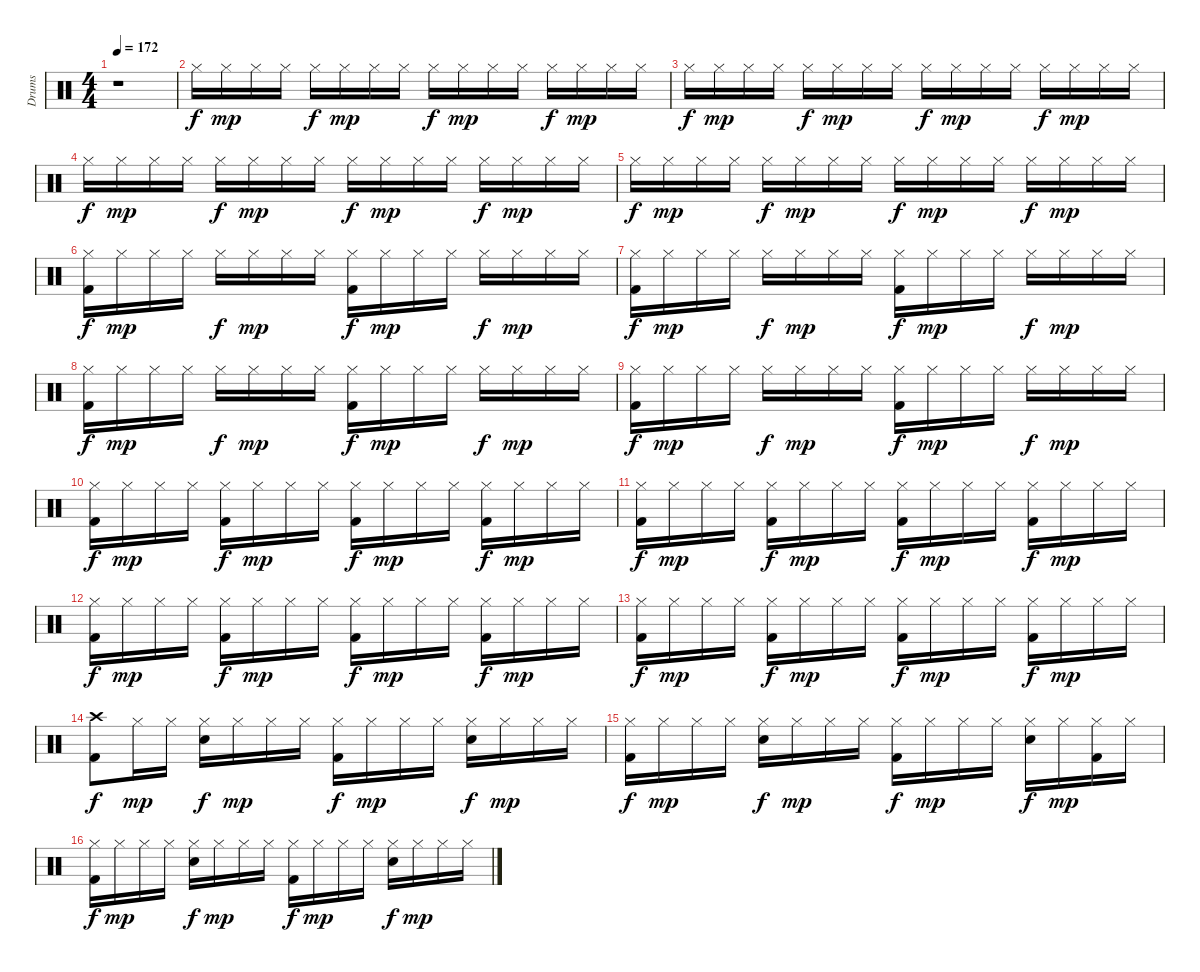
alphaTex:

\track ("Drums" "Drums") {instrument percussion}
\staff {score}
\articulation defaults
\ts (4 4)
\tempo 172
\clef neutral
\ks c
r.1{dy f} |
\section ("" "")
"Hi-Hat (closed)".16 "Hi-Hat (closed)".16{dy mp} "Hi-Hat (closed)".16 "Hi-Hat (closed)".16 "Hi-Hat (closed)".16{dy f} "Hi-Hat (closed)".16{dy mp} "Hi-Hat (closed)".16 "Hi-Hat (closed)".16 "Hi-Hat (closed)".16{dy f} "Hi-Hat (closed)".16{dy mp} "Hi-Hat (closed)".16 "Hi-Hat (closed)".16 "Hi-Hat (closed)".16{dy f} "Hi-Hat (closed)".16{dy mp} "Hi-Hat (closed)".16 "Hi-Hat (closed)".16 |
"Hi-Hat (closed)".16{dy f} "Hi-Hat (closed)".16{dy mp} "Hi-Hat (closed)".16 "Hi-Hat (closed)".16 "Hi-Hat (closed)".16{dy f} "Hi-Hat (closed)".16{dy mp} "Hi-Hat (closed)".16 "Hi-Hat (closed)".16 "Hi-Hat (closed)".16{dy f} "Hi-Hat (closed)".16{dy mp} "Hi-Hat (closed)".16 "Hi-Hat (closed)".16 "Hi-Hat (closed)".16{dy f} "Hi-Hat (closed)".16{dy mp} "Hi-Hat (closed)".16 "Hi-Hat (closed)".16 |
"Hi-Hat (closed)".16{dy f} "Hi-Hat (closed)".16{dy mp} "Hi-Hat (closed)".16 "Hi-Hat (closed)".16 "Hi-Hat (closed)".16{dy f} "Hi-Hat (closed)".16{dy mp} "Hi-Hat (closed)".16 "Hi-Hat (closed)".16 "Hi-Hat (closed)".16{dy f} "Hi-Hat (closed)".16{dy mp} "Hi-Hat (closed)".16 "Hi-Hat (closed)".16 "Hi-Hat (closed)".16{dy f} "Hi-Hat (closed)".16{dy mp} "Hi-Hat (closed)".16 "Hi-Hat (closed)".16 |
"Hi-Hat (closed)".16{dy f} "Hi-Hat (closed)".16{dy mp} "Hi-Hat (closed)".16 "Hi-Hat (closed)".16 "Hi-Hat (closed)".16{dy f} "Hi-Hat (closed)".16{dy mp} "Hi-Hat (closed)".16 "Hi-Hat (closed)".16 "Hi-Hat (closed)".16{dy f} "Hi-Hat (closed)".16{dy mp} "Hi-Hat (closed)".16 "Hi-Hat (closed)".16 "Hi-Hat (closed)".16{dy f} "Hi-Hat (closed)".16{dy mp} "Hi-Hat (closed)".16 "Hi-Hat (closed)".16 |
("Kick (hit) 2" "Hi-Hat (closed)").16{dy f} "Hi-Hat (closed)".16{dy mp} "Hi-Hat (closed)".16 "Hi-Hat (closed)".16 "Hi-Hat (closed)".16{dy f} "Hi-Hat (closed)".16{dy mp} "Hi-Hat (closed)".16 "Hi-Hat (closed)".16 ("Kick (hit) 2" "Hi-Hat (closed)").16{dy f} "Hi-Hat (closed)".16{dy mp} "Hi-Hat (closed)".16 "Hi-Hat (closed)".16 "Hi-Hat (closed)".16{dy f} "Hi-Hat (closed)".16{dy mp} "Hi-Hat (closed)".16 "Hi-Hat (closed)".16 |
("Kick (hit) 2" "Hi-Hat (closed)").16{dy f} "Hi-Hat (closed)".16{dy mp} "Hi-Hat (closed)".16 "Hi-Hat (closed)".16 "Hi-Hat (closed)".16{dy f} "Hi-Hat (closed)".16{dy mp} "Hi-Hat (closed)".16 "Hi-Hat (closed)".16 ("Kick (hit) 2" "Hi-Hat (closed)").16{dy f} "Hi-Hat (closed)".16{dy mp} "Hi-Hat (closed)".16 "Hi-Hat (closed)".16 "Hi-Hat (closed)".16{dy f} "Hi-Hat (closed)".16{dy mp} "Hi-Hat (closed)".16 "Hi-Hat (closed)".16 |
("Kick (hit) 2" "Hi-Hat (closed)").16{dy f} "Hi-Hat (closed)".16{dy mp} "Hi-Hat (closed)".16 "Hi-Hat (closed)".16 "Hi-Hat (closed)".16{dy f} "Hi-Hat (closed)".16{dy mp} "Hi-Hat (closed)".16 "Hi-Hat (closed)".16 ("Kick (hit) 2" "Hi-Hat (closed)").16{dy f} "Hi-Hat (closed)".16{dy mp} "Hi-Hat (closed)".16 "Hi-Hat (closed)".16 "Hi-Hat (closed)".16{dy f} "Hi-Hat (closed)".16{dy mp} "Hi-Hat (closed)".16 "Hi-Hat (closed)".16 |
("Kick (hit) 2" "Hi-Hat (closed)").16{dy f} "Hi-Hat (closed)".16{dy mp} "Hi-Hat (closed)".16 "Hi-Hat (closed)".16 "Hi-Hat (closed)".16{dy f} "Hi-Hat (closed)".16{dy mp} "Hi-Hat (closed)".16 "Hi-Hat (closed)".16 ("Kick (hit) 2" "Hi-Hat (closed)").16{dy f} "Hi-Hat (closed)".16{dy mp} "Hi-Hat (closed)".16 "Hi-Hat (closed)".16 "Hi-Hat (closed)".16{dy f} "Hi-Hat (closed)".16{dy mp} "Hi-Hat (closed)".16 "Hi-Hat (closed)".16 |
("Kick (hit) 2" "Hi-Hat (closed)").16{dy f} "Hi-Hat (closed)".16{dy mp} "Hi-Hat (closed)".16 "Hi-Hat (closed)".16 ("Kick (hit) 2" "Hi-Hat (closed)").16{dy f} "Hi-Hat (closed)".16{dy mp} "Hi-Hat (closed)".16 "Hi-Hat (closed)".16 ("Kick (hit) 2" "Hi-Hat (closed)").16{dy f} "Hi-Hat (closed)".16{dy mp} "Hi-Hat (closed)".16 "Hi-Hat (closed)".16 ("Kick (hit) 2" "Hi-Hat (closed)").16{dy f} "Hi-Hat (closed)".16{dy mp} "Hi-Hat (closed)".16 "Hi-Hat (closed)".16 |
("Kick (hit) 2" "Hi-Hat (closed)").16{dy f} "Hi-Hat (closed)".16{dy mp} "Hi-Hat (closed)".16 "Hi-Hat (closed)".16 ("Kick (hit) 2" "Hi-Hat (closed)").16{dy f} "Hi-Hat (closed)".16{dy mp} "Hi-Hat (closed)".16 "Hi-Hat (closed)".16 ("Kick (hit) 2" "Hi-Hat (closed)").16{dy f} "Hi-Hat (closed)".16{dy mp} "Hi-Hat (closed)".16 "Hi-Hat (closed)".16 ("Kick (hit) 2" "Hi-Hat (closed)").16{dy f} "Hi-Hat (closed)".16{dy mp} "Hi-Hat (closed)".16 "Hi-Hat (closed)".16 |
("Kick (hit) 2" "Hi-Hat (closed)").16{dy f} "Hi-Hat (closed)".16{dy mp} "Hi-Hat (closed)".16 "Hi-Hat (closed)".16 ("Kick (hit) 2" "Hi-Hat (closed)").16{dy f} "Hi-Hat (closed)".16{dy mp} "Hi-Hat (closed)".16 "Hi-Hat (closed)".16 ("Kick (hit) 2" "Hi-Hat (closed)").16{dy f} "Hi-Hat (closed)".16{dy mp} "Hi-Hat (closed)".16 "Hi-Hat (closed)".16 ("Kick (hit) 2" "Hi-Hat (closed)").16{dy f} "Hi-Hat (closed)".16{dy mp} "Hi-Hat (closed)".16 "Hi-Hat (closed)".16 |
("Kick (hit) 2" "Hi-Hat (closed)").16{dy f} "Hi-Hat (closed)".16{dy mp} "Hi-Hat (closed)".16 "Hi-Hat (closed)".16 ("Kick (hit) 2" "Hi-Hat (closed)").16{dy f} "Hi-Hat (closed)".16{dy mp} "Hi-Hat (closed)".16 "Hi-Hat (closed)".16 ("Kick (hit) 2" "Hi-Hat (closed)").16{dy f} "Hi-Hat (closed)".16{dy mp} "Hi-Hat (closed)".16 "Hi-Hat (closed)".16 ("Kick (hit) 2" "Hi-Hat (closed)").16{dy f} "Hi-Hat (closed)".16{dy mp} "Hi-Hat (closed)".16 "Hi-Hat (closed)".16 |
\section ("" "")
("Kick (hit) 2" "Crash high (hit)").8{dy f} "Hi-Hat (closed)".16{dy mp} "Hi-Hat (closed)".16 ("Snare (hit) 2" "Hi-Hat (closed)").16{dy f} "Hi-Hat (closed)".16{dy mp} "Hi-Hat (closed)".16 "Hi-Hat (closed)".16 ("Kick (hit) 2" "Hi-Hat (closed)").16{dy f} "Hi-Hat (closed)".16{dy mp} "Hi-Hat (closed)".16 "Hi-Hat (closed)".16 ("Snare (hit) 2" "Hi-Hat (closed)").16{dy f} "Hi-Hat (closed)".16{dy mp} "Hi-Hat (closed)".16 "Hi-Hat (closed)".16 |
("Kick (hit) 2" "Hi-Hat (closed)").16{dy f} "Hi-Hat (closed)".16{dy mp} "Hi-Hat (closed)".16 "Hi-Hat (closed)".16 ("Snare (hit) 2" "Hi-Hat (closed)").16{dy f} "Hi-Hat (closed)".16{dy mp} "Hi-Hat (closed)".16 "Hi-Hat (closed)".16 ("Kick (hit) 2" "Hi-Hat (closed)").16{dy f} "Hi-Hat (closed)".16{dy mp} "Hi-Hat (closed)".16 "Hi-Hat (closed)".16 ("Snare (hit) 2" "Hi-Hat (closed)").16{dy f} "Hi-Hat (closed)".16{dy mp} ("Kick (hit) 2" "Hi-Hat (closed)").16 "Hi-Hat (closed)".16 |
("Kick (hit) 2" "Hi-Hat (closed)").16{dy f} "Hi-Hat (closed)".16{dy mp} "Hi-Hat (closed)".16 "Hi-Hat (closed)".16 ("Snare (hit) 2" "Hi-Hat (closed)").16{dy f} "Hi-Hat (closed)".16{dy mp} "Hi-Hat (closed)".16 "Hi-Hat (closed)".16 ("Kick (hit) 2" "Hi-Hat (closed)").16{dy f} "Hi-Hat (closed)".16{dy mp} "Hi-Hat (closed)".16 "Hi-Hat (closed)".16 ("Snare (hit) 2" "Hi-Hat (closed)").16{dy f} "Hi-Hat (closed)".16{dy mp} "Hi-Hat (closed)".16 "Hi-Hat (closed)".16
